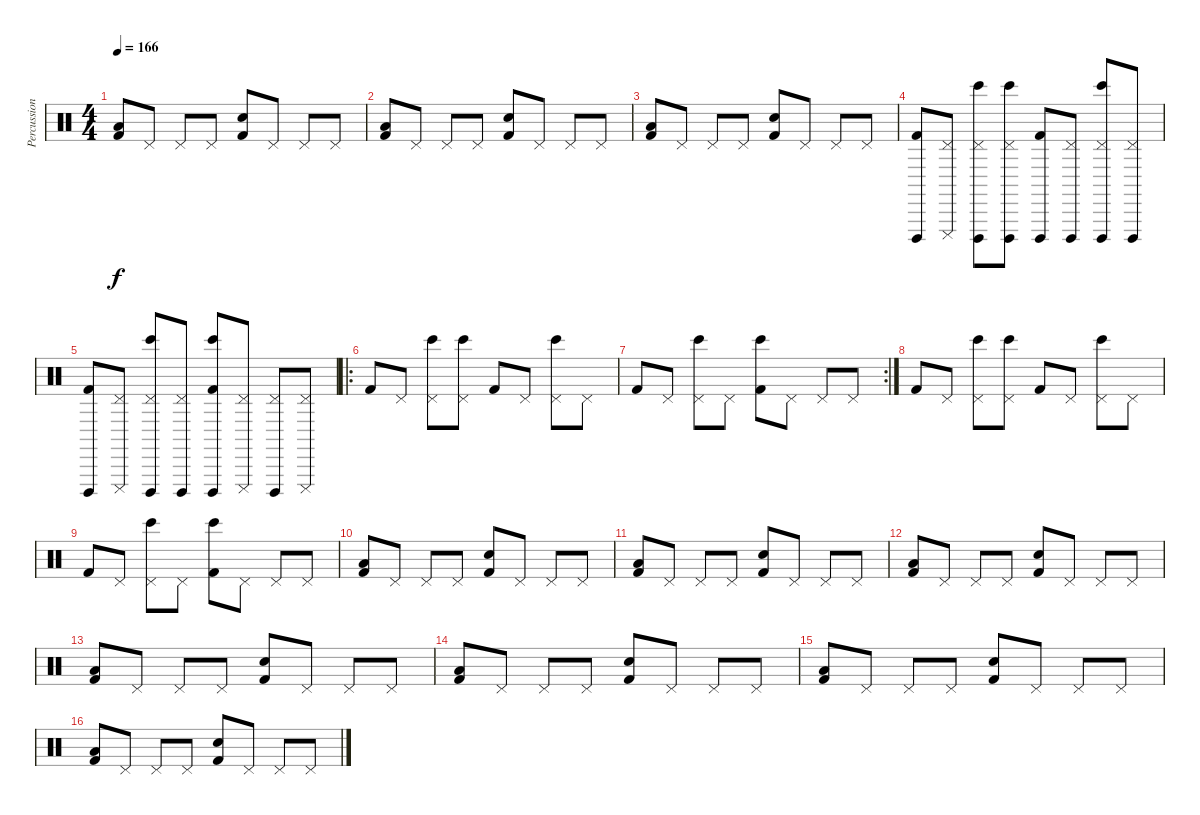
\track ("Percussion" "Percussion") {instrument percussion}
\staff {score}
\articulation defaults
\ts (4 4)
\tempo 166
\clef neutral
\ks c
("Kick (hit) 2" "Low Tom (hit)").8{dy f} "Pedal Hi-Hat (hit)".8 "Pedal Hi-Hat (hit)".8 "Pedal Hi-Hat (hit)".8 ("Kick (hit) 2" "Electric Snare (hit)").8 "Pedal Hi-Hat (hit)".8 "Pedal Hi-Hat (hit)".8 "Pedal Hi-Hat (hit)".8 |
("Kick (hit) 2" "Low Tom (hit)").8 "Pedal Hi-Hat (hit)".8 "Pedal Hi-Hat (hit)".8 "Pedal Hi-Hat (hit)".8 ("Kick (hit) 2" "Electric Snare (hit)").8 "Pedal Hi-Hat (hit)".8 "Pedal Hi-Hat (hit)".8 "Pedal Hi-Hat (hit)".8 |
("Kick (hit) 2" "Low Tom (hit)").8 "Pedal Hi-Hat (hit)".8 "Pedal Hi-Hat (hit)".8 "Pedal Hi-Hat (hit)".8 ("Kick (hit) 2" "Electric Snare (hit)").8 "Pedal Hi-Hat (hit)".8 "Pedal Hi-Hat (hit)".8 "Pedal Hi-Hat (hit)".8 |
("Kick (hit) 2" "Cuica (open)").8 ("Pedal Hi-Hat (hit)" "Cuica (mute)").8 ("Pedal Hi-Hat (hit)" "Bongo High (hit)" "Cuica (open)").8 ("Pedal Hi-Hat (hit)" "Bongo High (hit)" "Cuica (open)").8 ("Kick (hit) 2" "Cuica (open)").8 ("Pedal Hi-Hat (hit)" "Cuica (open)").8 ("Pedal Hi-Hat (hit)" "Bongo High (hit)" "Cuica (open)").8 ("Pedal Hi-Hat (hit)" "Cuica (open)").8 |
("Kick (hit) 2" "Cuica (open)").8 ("Pedal Hi-Hat (hit)" "Cuica (mute)").8 ("Pedal Hi-Hat (hit)" "Bongo High (hit)" "Cuica (open)").8 ("Pedal Hi-Hat (hit)" "Cuica (open)").8 ("Kick (hit) 2" "Bongo High (hit)" "Cuica (open)").8 ("Pedal Hi-Hat (hit)" "Cuica (mute)").8 ("Pedal Hi-Hat (hit)" "Cuica (open)").8 ("Pedal Hi-Hat (hit)" "Cuica (mute)").8 |
\ro "Kick (hit) 2".8 "Pedal Hi-Hat (hit)".8
("Pedal Hi-Hat (hit)" "Bongo High (hit)").8 ("Pedal Hi-Hat (hit)" "Bongo High (hit)").8 "Kick (hit) 2".8 "Pedal Hi-Hat (hit)".8 ("Pedal Hi-Hat (hit)" "Bongo High (hit)").8 "Pedal Hi-Hat (hit)".8 |
\rc 2 "Kick (hit) 2".8 "Pedal Hi-Hat (hit)".8
("Pedal Hi-Hat (hit)" "Bongo High (hit)").8 "Pedal Hi-Hat (hit)".8 ("Kick (hit) 2" "Bongo High (hit)").8 "Pedal Hi-Hat (hit)".8 "Pedal Hi-Hat (hit)".8 "Pedal Hi-Hat (hit)".8 |
"Kick (hit) 2".8 "Pedal Hi-Hat (hit)".8 ("Pedal Hi-Hat (hit)" "Bongo High (hit)").8 ("Pedal Hi-Hat (hit)" "Bongo High (hit)").8 "Kick (hit) 2".8 "Pedal Hi-Hat (hit)".8 ("Pedal Hi-Hat (hit)" "Bongo High (hit)").8 "Pedal Hi-Hat (hit)".8 |
"Kick (hit) 2".8 "Pedal Hi-Hat (hit)".8 ("Pedal Hi-Hat (hit)" "Bongo High (hit)").8 "Pedal Hi-Hat (hit)".8 ("Kick (hit) 2" "Bongo High (hit)").8 "Pedal Hi-Hat (hit)".8 "Pedal Hi-Hat (hit)".8 "Pedal Hi-Hat (hit)".8 |
("Kick (hit) 2" "Low Tom (hit)").8 "Pedal Hi-Hat (hit)".8 "Pedal Hi-Hat (hit)".8 "Pedal Hi-Hat (hit)".8 ("Kick (hit) 2" "Electric Snare (hit)").8 "Pedal Hi-Hat (hit)".8 "Pedal Hi-Hat (hit)".8 "Pedal Hi-Hat (hit)".8 |
("Kick (hit) 2" "Low Tom (hit)").8 "Pedal Hi-Hat (hit)".8 "Pedal Hi-Hat (hit)".8 "Pedal Hi-Hat (hit)".8 ("Kick (hit) 2" "Electric Snare (hit)").8 "Pedal Hi-Hat (hit)".8 "Pedal Hi-Hat (hit)".8 "Pedal Hi-Hat (hit)".8 |
("Kick (hit) 2" "Low Tom (hit)").8 "Pedal Hi-Hat (hit)".8 "Pedal Hi-Hat (hit)".8 "Pedal Hi-Hat (hit)".8 ("Kick (hit) 2" "Electric Snare (hit)").8 "Pedal Hi-Hat (hit)".8 "Pedal Hi-Hat (hit)".8 "Pedal Hi-Hat (hit)".8 |
("Kick (hit) 2" "Low Tom (hit)").8 "Pedal Hi-Hat (hit)".8 "Pedal Hi-Hat (hit)".8 "Pedal Hi-Hat (hit)".8 ("Kick (hit) 2" "Electric Snare (hit)").8 "Pedal Hi-Hat (hit)".8 "Pedal Hi-Hat (hit)".8 "Pedal Hi-Hat (hit)".8 |
("Kick (hit) 2" "Low Tom (hit)").8 "Pedal Hi-Hat (hit)".8 "Pedal Hi-Hat (hit)".8 "Pedal Hi-Hat (hit)".8 ("Kick (hit) 2" "Electric Snare (hit)").8 "Pedal Hi-Hat (hit)".8 "Pedal Hi-Hat (hit)".8 "Pedal Hi-Hat (hit)".8 |
("Kick (hit) 2" "Low Tom (hit)").8 "Pedal Hi-Hat (hit)".8 "Pedal Hi-Hat (hit)".8 "Pedal Hi-Hat (hit)".8 ("Kick (hit) 2" "Electric Snare (hit)").8 "Pedal Hi-Hat (hit)".8 "Pedal Hi-Hat (hit)".8 "Pedal Hi-Hat (hit)".8 |
("Kick (hit) 2" "Low Tom (hit)").8 "Pedal Hi-Hat (hit)".8 "Pedal Hi-Hat (hit)".8 "Pedal Hi-Hat (hit)".8 ("Kick (hit) 2" "Electric Snare (hit)").8 "Pedal Hi-Hat (hit)".8 "Pedal Hi-Hat (hit)".8 "Pedal Hi-Hat (hit)".8
